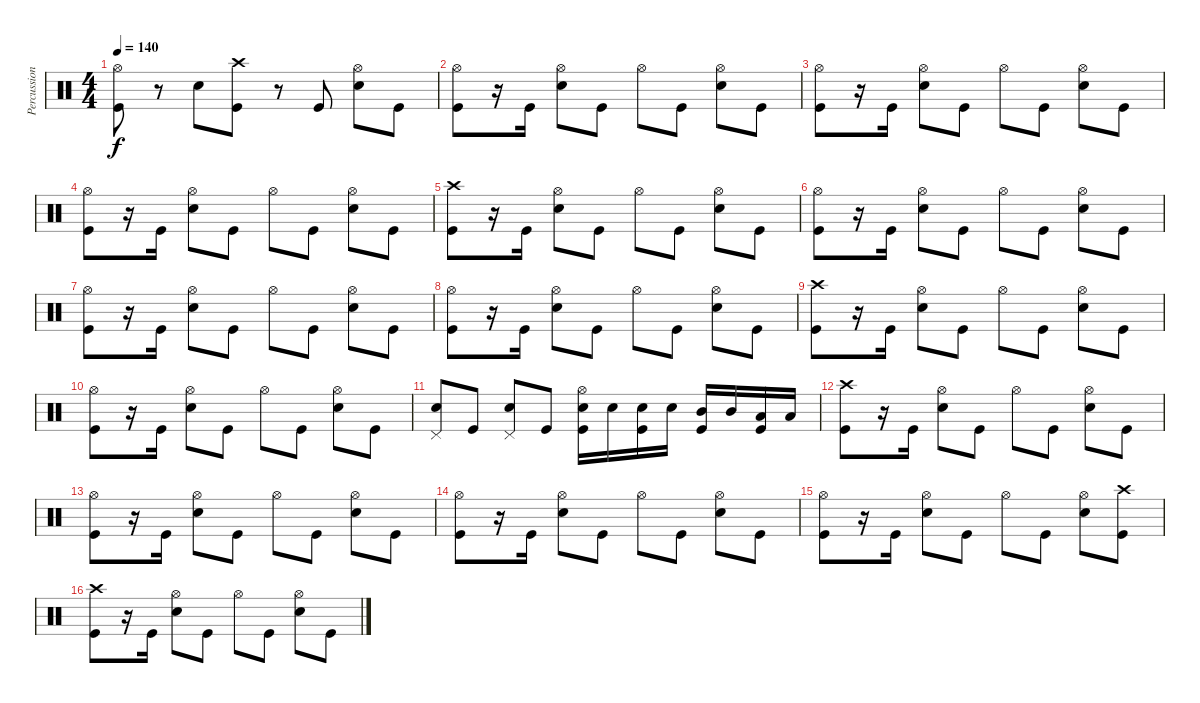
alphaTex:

\track ("Percussion" "Percussion") {instrument percussion}
\staff {score}
\articulation defaults
\ts (4 4)
\tempo 140
\clef neutral
\ks c
("Hi-Hat (open)" "Kick (hit)").8{dy f} r.8 "Snare (hit) 2".8 ("Crash high (hit)" "Kick (hit)").8 r.8 "Kick (hit)".8 ("Hi-Hat (open)" "Snare (hit) 2").8 "Kick (hit)".8 |
("Hi-Hat (open)" "Kick (hit)").8 r.16 "Kick (hit)".16 ("Hi-Hat (open)" "Snare (hit) 2").8 "Kick (hit)".8 "Hi-Hat (open)".8 "Kick (hit)".8 ("Hi-Hat (open)" "Snare (hit) 2").8 "Kick (hit)".8 |
("Hi-Hat (open)" "Kick (hit)").8 r.16 "Kick (hit)".16 ("Hi-Hat (open)" "Snare (hit) 2").8 "Kick (hit)".8 "Hi-Hat (open)".8 "Kick (hit)".8 ("Hi-Hat (open)" "Snare (hit) 2").8 "Kick (hit)".8 |
("Hi-Hat (open)" "Kick (hit)").8 r.16 "Kick (hit)".16 ("Hi-Hat (open)" "Snare (hit) 2").8 "Kick (hit)".8 "Hi-Hat (open)".8 "Kick (hit)".8 ("Hi-Hat (open)" "Snare (hit) 2").8 "Kick (hit)".8 |
("Crash high (hit)" "Kick (hit)").8 r.16 "Kick (hit)".16 ("Hi-Hat (open)" "Snare (hit) 2").8 "Kick (hit)".8 "Hi-Hat (open)".8 "Kick (hit)".8 ("Hi-Hat (open)" "Snare (hit) 2").8 "Kick (hit)".8 |
("Hi-Hat (open)" "Kick (hit)").8 r.16 "Kick (hit)".16 ("Hi-Hat (open)" "Snare (hit) 2").8 "Kick (hit)".8 "Hi-Hat (open)".8 "Kick (hit)".8 ("Hi-Hat (open)" "Snare (hit) 2").8 "Kick (hit)".8 |
("Hi-Hat (open)" "Kick (hit)").8 r.16 "Kick (hit)".16 ("Hi-Hat (open)" "Snare (hit) 2").8 "Kick (hit)".8 "Hi-Hat (open)".8 "Kick (hit)".8 ("Hi-Hat (open)" "Snare (hit) 2").8 "Kick (hit)".8 |
("Hi-Hat (open)" "Kick (hit)").8 r.16 "Kick (hit)".16 ("Hi-Hat (open)" "Snare (hit) 2").8 "Kick (hit)".8 "Hi-Hat (open)".8 "Kick (hit)".8 ("Hi-Hat (open)" "Snare (hit) 2").8 "Kick (hit)".8 |
("Crash high (hit)" "Kick (hit)").8 r.16 "Kick (hit)".16 ("Hi-Hat (open)" "Snare (hit) 2").8 "Kick (hit)".8 "Hi-Hat (open)".8 "Kick (hit)".8 ("Hi-Hat (open)" "Snare (hit) 2").8 "Kick (hit)".8 |
("Hi-Hat (open)" "Kick (hit)").8 r.16 "Kick (hit)".16 ("Hi-Hat (open)" "Snare (hit) 2").8 "Kick (hit)".8 "Hi-Hat (open)".8 "Kick (hit)".8 ("Hi-Hat (open)" "Snare (hit) 2").8 "Kick (hit)".8 |
("Pedal Hi-Hat (hit)" "Snare (hit) 2").8 "Kick (hit)".8 ("Pedal Hi-Hat (hit)" "Snare (hit) 2").8 "Kick (hit)".8 ("Hi-Hat (open)" "Snare (hit) 2" "Kick (hit)").16 "Snare (hit) 2".16 ("Snare (hit) 2" "Kick (hit)").16 "Snare (hit) 2".16 ("Mid Tom (hit)" "Kick (hit)").16 "Mid Tom (hit)".16 ("Low Tom (hit)" "Kick (hit)").16 "Low Floor Tom (hit)".16 |
("Crash high (hit)" "Kick (hit)").8 r.16 "Kick (hit)".16 ("Hi-Hat (open)" "Snare (hit) 2").8 "Kick (hit)".8 "Hi-Hat (open)".8 "Kick (hit)".8 ("Hi-Hat (open)" "Snare (hit) 2").8 "Kick (hit)".8 |
("Hi-Hat (open)" "Kick (hit)").8 r.16 "Kick (hit)".16 ("Hi-Hat (open)" "Snare (hit) 2").8 "Kick (hit)".8 "Hi-Hat (open)".8 "Kick (hit)".8 ("Hi-Hat (open)" "Snare (hit) 2").8 "Kick (hit)".8 |
("Hi-Hat (open)" "Kick (hit)").8 r.16 "Kick (hit)".16 ("Hi-Hat (open)" "Snare (hit) 2").8 "Kick (hit)".8 "Hi-Hat (open)".8 "Kick (hit)".8 ("Hi-Hat (open)" "Snare (hit) 2").8 "Kick (hit)".8 |
("Hi-Hat (open)" "Kick (hit)").8 r.16 "Kick (hit)".16 ("Hi-Hat (open)" "Snare (hit) 2").8 "Kick (hit)".8 "Hi-Hat (open)".8 "Kick (hit)".8 ("Hi-Hat (open)" "Snare (hit) 2").8 ("Crash high (hit)" "Kick (hit)").8 |
("Crash high (hit)" "Kick (hit)").8 r.16 "Kick (hit)".16 ("Hi-Hat (open)" "Snare (hit) 2").8 "Kick (hit)".8 "Hi-Hat (open)".8 "Kick (hit)".8 ("Hi-Hat (open)" "Snare (hit) 2").8 "Kick (hit)".8
